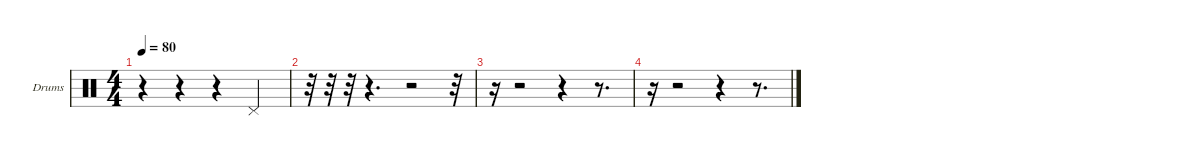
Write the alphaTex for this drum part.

\hideDynamics
\bracketExtendMode nobrackets
\firstSystemTrackNameOrientation horizontal
\otherSystemsTrackNameOrientation horizontal
\track ("Drumkit" "Drums") {instrument percussion}
\staff {score}
\articulation defaults
\ts (4 4)
\tempo 80
\clef neutral
\ks c
r.4{dy f} r.4 r.4 "Pedal Hi-Hat (hit)".4 |
r.32 r.32 r.32 r.4{d} r.2 r.32 |
r.16 r.2 r.4 r.8{d} |
r.16 r.2 r.4 r.8{d}
